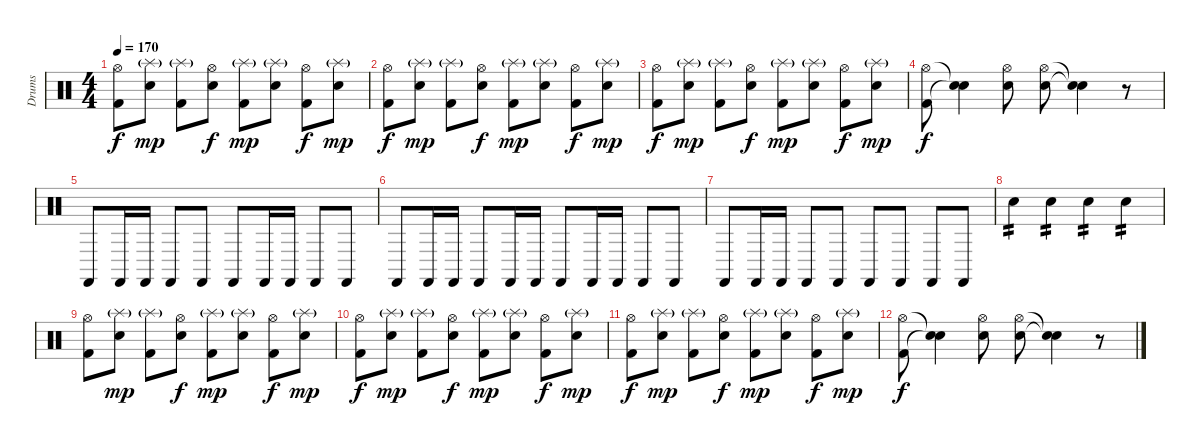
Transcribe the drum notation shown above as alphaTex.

\track ("Drums" "Drums") {instrument percussion}
\staff {score}
\articulation defaults
\ts (4 4)
\tempo 170
\clef neutral
\ks c
("Hi-Hat (open)" "Kick (hit) 2").8{dy f} ("Splash (hit)"{g} "Snare (hit) 2").8{dy mp} ("Splash (hit)"{g} "Kick (hit) 2").8 ("Hi-Hat (open)" "Snare (hit) 2").8{dy f} ("Splash (hit)"{g} "Kick (hit) 2").8{dy mp} ("Splash (hit)"{g} "Snare (hit) 2").8 ("Hi-Hat (open)" "Kick (hit) 2").8{dy f} ("Splash (hit)"{g} "Snare (hit) 2").8{dy mp} |
("Hi-Hat (open)" "Kick (hit) 2").8{dy f} ("Splash (hit)"{g} "Snare (hit) 2").8{dy mp} ("Splash (hit)"{g} "Kick (hit) 2").8 ("Hi-Hat (open)" "Snare (hit) 2").8{dy f} ("Splash (hit)"{g} "Kick (hit) 2").8{dy mp} ("Splash (hit)"{g} "Snare (hit) 2").8 ("Hi-Hat (open)" "Kick (hit) 2").8{dy f} ("Splash (hit)"{g} "Snare (hit) 2").8{dy mp} |
("Hi-Hat (open)" "Kick (hit) 2").8{dy f} ("Splash (hit)"{g} "Snare (hit) 2").8{dy mp} ("Splash (hit)"{g} "Kick (hit) 2").8 ("Hi-Hat (open)" "Snare (hit) 2").8{dy f} ("Splash (hit)"{g} "Kick (hit) 2").8{dy mp} ("Splash (hit)"{g} "Snare (hit) 2").8 ("Hi-Hat (open)" "Kick (hit) 2").8{dy f} ("Splash (hit)"{g} "Snare (hit) 2").8{dy mp} |
("Hi-Hat (open)" "Kick (hit) 2").8{dy f} ("Snare (hit)"{t} "Snare (hit)"{t}).4 ("Hi-Hat (open)" "Snare (hit) 2").8 ("Hi-Hat (open)" "Snare (hit) 2").8 ("Snare (hit)"{t} "Snare (hit)"{t}).4 r.8 |
"Castanets (hit)".8 "Castanets (hit)".16 "Castanets (hit)".16 "Castanets (hit)".8 "Castanets (hit)".8 "Castanets (hit)".8 "Castanets (hit)".16 "Castanets (hit)".16 "Castanets (hit)".8 "Castanets (hit)".8 |
"Castanets (hit)".8 "Castanets (hit)".16 "Castanets (hit)".16 "Castanets (hit)".8 "Castanets (hit)".16 "Castanets (hit)".16 "Castanets (hit)".8 "Castanets (hit)".16 "Castanets (hit)".16 "Castanets (hit)".8 "Castanets (hit)".8 |
"Castanets (hit)".8 "Castanets (hit)".16 "Castanets (hit)".16 "Castanets (hit)".8 "Castanets (hit)".8 "Castanets (hit)".8 "Castanets (hit)".8 "Castanets (hit)".8 "Castanets (hit)".8 |
"Electric Snare (hit)".4{tp 2} "Electric Snare (hit)".4{tp 2} "Electric Snare (hit)".4{tp 2} "Electric Snare (hit)".4{tp 2} |
("Hi-Hat (open)" "Kick (hit) 2").8 ("Splash (hit)"{g} "Snare (hit) 2").8{dy mp} ("Splash (hit)"{g} "Kick (hit) 2").8 ("Hi-Hat (open)" "Snare (hit) 2").8{dy f} ("Splash (hit)"{g} "Kick (hit) 2").8{dy mp} ("Splash (hit)"{g} "Snare (hit) 2").8 ("Hi-Hat (open)" "Kick (hit) 2").8{dy f} ("Splash (hit)"{g} "Snare (hit) 2").8{dy mp} |
("Hi-Hat (open)" "Kick (hit) 2").8{dy f} ("Splash (hit)"{g} "Snare (hit) 2").8{dy mp} ("Splash (hit)"{g} "Kick (hit) 2").8 ("Hi-Hat (open)" "Snare (hit) 2").8{dy f} ("Splash (hit)"{g} "Kick (hit) 2").8{dy mp} ("Splash (hit)"{g} "Snare (hit) 2").8 ("Hi-Hat (open)" "Kick (hit) 2").8{dy f} ("Splash (hit)"{g} "Snare (hit) 2").8{dy mp} |
("Hi-Hat (open)" "Kick (hit) 2").8{dy f} ("Splash (hit)"{g} "Snare (hit) 2").8{dy mp} ("Splash (hit)"{g} "Kick (hit) 2").8 ("Hi-Hat (open)" "Snare (hit) 2").8{dy f} ("Splash (hit)"{g} "Kick (hit) 2").8{dy mp} ("Splash (hit)"{g} "Snare (hit) 2").8 ("Hi-Hat (open)" "Kick (hit) 2").8{dy f} ("Splash (hit)"{g} "Snare (hit) 2").8{dy mp} |
("Hi-Hat (open)" "Kick (hit) 2").8{dy f} ("Snare (hit)"{t} "Snare (hit)"{t}).4 ("Hi-Hat (open)" "Snare (hit) 2").8 ("Hi-Hat (open)" "Snare (hit) 2").8 ("Snare (hit)"{t} "Snare (hit)"{t}).4 r.8
